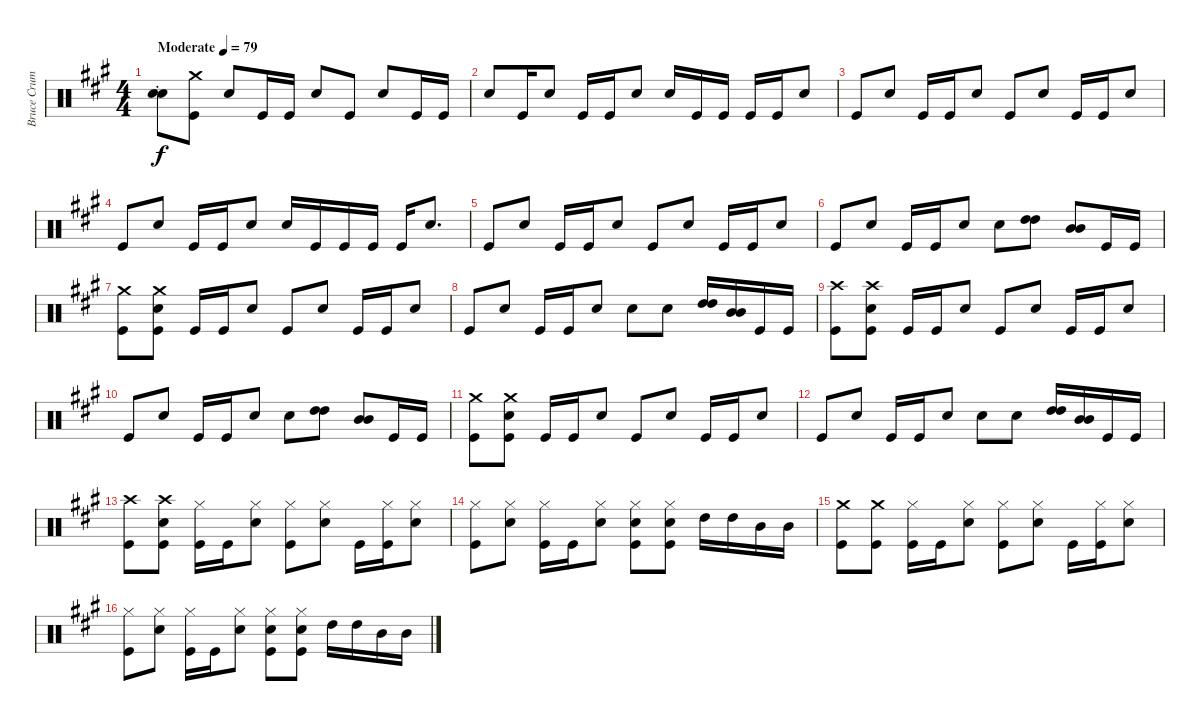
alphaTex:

\track ("Bruce Crump Drums" "Bruce Crum") {instrument percussion}
\staff {score}
\articulation defaults
\ts (4 4)
\tempo (79 "Moderate")
\clef neutral
\ks a
("Snare (hit) 2"{st} "Snare (hit) 2").8{dy f} ("Crash medium (hit)" "Kick (hit)").8 "Snare (hit) 2".8 "Kick (hit)".16 "Kick (hit)".16 "Snare (hit) 2".8 "Kick (hit)".8 "Snare (hit) 2".8 "Kick (hit)".16 "Kick (hit)".16 |
"Snare (hit) 2".8 "Kick (hit)".16 "Snare (hit) 2".8 "Kick (hit)".16 "Kick (hit)".16 "Snare (hit) 2".8 "Snare (hit) 2".16 "Kick (hit)".16 "Kick (hit)".16 "Kick (hit)".16 "Kick (hit)".16 "Snare (hit) 2".8 |
"Kick (hit)".8 "Snare (hit) 2".8 "Kick (hit)".16 "Kick (hit)".16 "Snare (hit) 2".8 "Kick (hit)".8 "Snare (hit) 2".8 "Kick (hit)".16 "Kick (hit)".16 "Snare (hit) 2".8 |
"Kick (hit)".8 "Snare (hit) 2".8 "Kick (hit)".16 "Kick (hit)".16 "Snare (hit) 2".8 "Snare (hit) 2".16 "Kick (hit)".16 "Kick (hit)".16 "Kick (hit)".16 "Kick (hit)".16 "Snare (hit) 2".8{d} |
"Kick (hit)".8 "Snare (hit) 2".8 "Kick (hit)".16 "Kick (hit)".16 "Snare (hit) 2".8 "Kick (hit)".8 "Snare (hit) 2".8 "Kick (hit)".16 "Kick (hit)".16 "Snare (hit) 2".8 |
"Kick (hit)".8 "Snare (hit) 2".8 "Kick (hit)".16 "Kick (hit)".16 "Snare (hit) 2".8 "Snare (hit) 2".8 ("High Tom (hit)" "High Tom (hit)").8 ("Mid Tom (hit)" "Mid Tom (hit)").8 "Kick (hit)".16 "Kick (hit)".16 |
("Crash medium (hit)" "Kick (hit)").8 ("Crash medium (hit)" "Snare (hit) 2" "Kick (hit)").8 "Kick (hit)".16 "Kick (hit)".16 "Snare (hit) 2".8 "Kick (hit)".8 "Snare (hit) 2".8 "Kick (hit)".16 "Kick (hit)".16 "Snare (hit) 2".8 |
"Kick (hit)".8 "Snare (hit) 2".8 "Kick (hit)".16 "Kick (hit)".16 "Snare (hit) 2".8 "Snare (hit) 2".8 "Snare (hit) 2".8 ("High Tom (hit)" "High Tom (hit)").16 ("Mid Tom (hit)" "Mid Tom (hit)").16 "Kick (hit)".16 "Kick (hit)".16 |
("Crash high (hit)" "Kick (hit)").8 ("Crash high (hit)" "Snare (hit) 2" "Kick (hit)").8 "Kick (hit)".16 "Kick (hit)".16 "Snare (hit) 2".8 "Kick (hit)".8 "Snare (hit) 2".8 "Kick (hit)".16 "Kick (hit)".16 "Snare (hit) 2".8 |
"Kick (hit)".8 "Snare (hit) 2".8 "Kick (hit)".16 "Kick (hit)".16 "Snare (hit) 2".8 "Snare (hit) 2".8 ("High Tom (hit)" "High Tom (hit)").8 ("Mid Tom (hit)" "Mid Tom (hit)").8 "Kick (hit)".16 "Kick (hit)".16 |
("Crash medium (hit)" "Kick (hit)").8 ("Crash medium (hit)" "Snare (hit) 2" "Kick (hit)").8 "Kick (hit)".16 "Kick (hit)".16 "Snare (hit) 2".8 "Kick (hit)".8 "Snare (hit) 2".8 "Kick (hit)".16 "Kick (hit)".16 "Snare (hit) 2".8 |
"Kick (hit)".8 "Snare (hit) 2".8 "Kick (hit)".16 "Kick (hit)".16 "Snare (hit) 2".8 "Snare (hit) 2".8 "Snare (hit) 2".8 ("High Tom (hit)" "High Tom (hit)").16 ("Mid Tom (hit)" "Mid Tom (hit)").16 "Kick (hit)".16 "Kick (hit)".16 |
("Crash high (hit)" "Kick (hit)").8 ("Crash high (hit)" "Snare (hit) 2" "Kick (hit)").8 ("Hi-Hat (closed)" "Kick (hit)").16 "Kick (hit)".16 ("Hi-Hat (closed)" "Snare (hit) 2").8 ("Hi-Hat (closed)" "Kick (hit)").8 ("Hi-Hat (closed)" "Snare (hit) 2").8 "Kick (hit)".16 ("Hi-Hat (closed)" "Kick (hit)").16 ("Hi-Hat (closed)" "Snare (hit) 2").8 |
("Hi-Hat (closed)" "Kick (hit)").8 ("Hi-Hat (closed)" "Snare (hit) 2").8 ("Hi-Hat (closed)" "Kick (hit)").16 "Kick (hit)".16 ("Hi-Hat (closed)" "Snare (hit) 2").8 ("Hi-Hat (closed)" "Snare (hit) 2" "Kick (hit)").8 ("Hi-Hat (closed)" "Snare (hit) 2" "Kick (hit)").8 "High Tom (hit)".16 "High Tom (hit)".16 "Mid Tom (hit)".16 "Mid Tom (hit)".16 |
("Crash medium (hit)" "Kick (hit)").8 ("Crash medium (hit)" "Kick (hit)").8 ("Hi-Hat (closed)" "Kick (hit)").16 "Kick (hit)".16 ("Hi-Hat (closed)" "Snare (hit) 2").8 ("Hi-Hat (closed)" "Kick (hit)").8 ("Hi-Hat (closed)" "Snare (hit) 2").8 "Kick (hit)".16 ("Hi-Hat (closed)" "Kick (hit)").16 ("Hi-Hat (closed)" "Snare (hit) 2").8 |
("Hi-Hat (closed)" "Kick (hit)").8 ("Hi-Hat (closed)" "Snare (hit) 2").8 ("Hi-Hat (closed)" "Kick (hit)").16 "Kick (hit)".16 ("Hi-Hat (closed)" "Snare (hit) 2").8 ("Hi-Hat (closed)" "Snare (hit) 2" "Kick (hit)").8 ("Hi-Hat (closed)" "Snare (hit) 2" "Kick (hit)").8 "High Tom (hit)".16 "High Tom (hit)".16 "Mid Tom (hit)".16 "Mid Tom (hit)".16
